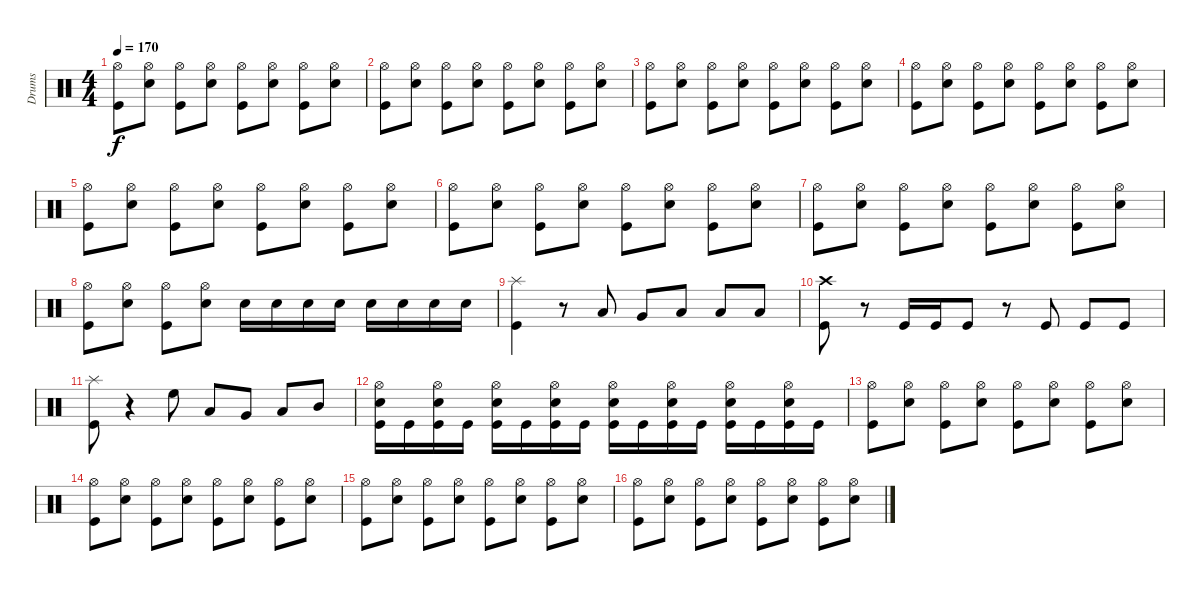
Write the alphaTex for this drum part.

\track ("Drums" "Drums") {instrument percussion}
\staff {score}
\articulation defaults
\ts (4 4)
\tempo 170
\clef neutral
\ks c
("Hi-Hat (open)" "Kick (hit)").8{dy f} ("Hi-Hat (open)" "Snare (hit) 2").8 ("Hi-Hat (open)" "Kick (hit)").8 ("Hi-Hat (open)" "Snare (hit) 2").8 ("Hi-Hat (open)" "Kick (hit)").8 ("Hi-Hat (open)" "Snare (hit) 2").8 ("Hi-Hat (open)" "Kick (hit)").8 ("Hi-Hat (open)" "Snare (hit) 2").8 |
("Hi-Hat (open)" "Kick (hit)").8 ("Hi-Hat (open)" "Snare (hit) 2").8 ("Hi-Hat (open)" "Kick (hit)").8 ("Hi-Hat (open)" "Snare (hit) 2").8 ("Hi-Hat (open)" "Kick (hit)").8 ("Hi-Hat (open)" "Snare (hit) 2").8 ("Hi-Hat (open)" "Kick (hit)").8 ("Hi-Hat (open)" "Snare (hit) 2").8 |
("Hi-Hat (open)" "Kick (hit)").8 ("Hi-Hat (open)" "Snare (hit) 2").8 ("Hi-Hat (open)" "Kick (hit)").8 ("Hi-Hat (open)" "Snare (hit) 2").8 ("Hi-Hat (open)" "Kick (hit)").8 ("Hi-Hat (open)" "Snare (hit) 2").8 ("Hi-Hat (open)" "Kick (hit)").8 ("Hi-Hat (open)" "Snare (hit) 2").8 |
("Hi-Hat (open)" "Kick (hit)").8 ("Hi-Hat (open)" "Snare (hit) 2").8 ("Hi-Hat (open)" "Kick (hit)").8 ("Hi-Hat (open)" "Snare (hit) 2").8 ("Hi-Hat (open)" "Kick (hit)").8 ("Hi-Hat (open)" "Snare (hit) 2").8 ("Hi-Hat (open)" "Kick (hit)").8 ("Hi-Hat (open)" "Snare (hit) 2").8 |
("Hi-Hat (open)" "Kick (hit)").8 ("Hi-Hat (open)" "Snare (hit) 2").8 ("Hi-Hat (open)" "Kick (hit)").8 ("Hi-Hat (open)" "Snare (hit) 2").8 ("Hi-Hat (open)" "Kick (hit)").8 ("Hi-Hat (open)" "Snare (hit) 2").8 ("Hi-Hat (open)" "Kick (hit)").8 ("Hi-Hat (open)" "Snare (hit) 2").8 |
("Hi-Hat (open)" "Kick (hit)").8 ("Hi-Hat (open)" "Snare (hit) 2").8 ("Hi-Hat (open)" "Kick (hit)").8 ("Hi-Hat (open)" "Snare (hit) 2").8 ("Hi-Hat (open)" "Kick (hit)").8 ("Hi-Hat (open)" "Snare (hit) 2").8 ("Hi-Hat (open)" "Kick (hit)").8 ("Hi-Hat (open)" "Snare (hit) 2").8 |
("Hi-Hat (open)" "Kick (hit)").8 ("Hi-Hat (open)" "Snare (hit) 2").8 ("Hi-Hat (open)" "Kick (hit)").8 ("Hi-Hat (open)" "Snare (hit) 2").8 ("Hi-Hat (open)" "Kick (hit)").8 ("Hi-Hat (open)" "Snare (hit) 2").8 ("Hi-Hat (open)" "Kick (hit)").8 ("Hi-Hat (open)" "Snare (hit) 2").8 |
("Hi-Hat (open)" "Kick (hit)").8 ("Hi-Hat (open)" "Snare (hit) 2").8 ("Hi-Hat (open)" "Kick (hit)").8 ("Hi-Hat (open)" "Snare (hit) 2").8 "Snare (hit) 2".16 "Snare (hit) 2".16 "Snare (hit) 2".16 "Snare (hit) 2".16 "Snare (hit) 2".16 "Snare (hit) 2".16 "Snare (hit) 2".16 "Snare (hit) 2".16 |
("Splash (hit)" "Kick (hit)").4 r.8 "Low Tom (hit)".8 "Very Low Tom (hit)".8 "Low Floor Tom (hit)".8 "Low Floor Tom (hit)".8 "Low Floor Tom (hit)".8 |
("Crash high (hit)" "Kick (hit)").8 r.8 "Kick (hit)".16 "Kick (hit)".16 "Kick (hit)".8 r.8 "Kick (hit)".8 "Kick (hit)".8 "Kick (hit)".8 |
("Splash (hit)" "Kick (hit)").8 r.4 "High Floor Tom (hit)".8 "Low Tom (hit)".8 "Very Low Tom (hit)".8 "Low Floor Tom (hit)".8 "Mid Tom (hit)".8 |
("Hi-Hat (open)" "Snare (hit) 2" "Kick (hit)").16 "Kick (hit)".16 ("Hi-Hat (open)" "Snare (hit) 2" "Kick (hit)").16 "Kick (hit)".16 ("Hi-Hat (open)" "Snare (hit) 2" "Kick (hit)").16 "Kick (hit)".16 ("Hi-Hat (open)" "Snare (hit) 2" "Kick (hit)").16 "Kick (hit)".16 ("Hi-Hat (open)" "Snare (hit) 2" "Kick (hit)").16 "Kick (hit)".16 ("Hi-Hat (open)" "Snare (hit) 2" "Kick (hit)").16 "Kick (hit)".16 ("Hi-Hat (open)" "Snare (hit) 2" "Kick (hit)").16 "Kick (hit)".16 ("Hi-Hat (open)" "Snare (hit) 2" "Kick (hit)").16 "Kick (hit)".16 |
("Hi-Hat (open)" "Kick (hit)").8 ("Hi-Hat (open)" "Snare (hit) 2").8 ("Hi-Hat (open)" "Kick (hit)").8 ("Hi-Hat (open)" "Snare (hit) 2").8 ("Hi-Hat (open)" "Kick (hit)").8 ("Hi-Hat (open)" "Snare (hit) 2").8 ("Hi-Hat (open)" "Kick (hit)").8 ("Hi-Hat (open)" "Snare (hit) 2").8 |
("Hi-Hat (open)" "Kick (hit)").8 ("Hi-Hat (open)" "Snare (hit) 2").8 ("Hi-Hat (open)" "Kick (hit)").8 ("Hi-Hat (open)" "Snare (hit) 2").8 ("Hi-Hat (open)" "Kick (hit)").8 ("Hi-Hat (open)" "Snare (hit) 2").8 ("Hi-Hat (open)" "Kick (hit)").8 ("Hi-Hat (open)" "Snare (hit) 2").8 |
("Hi-Hat (open)" "Kick (hit)").8 ("Hi-Hat (open)" "Snare (hit) 2").8 ("Hi-Hat (open)" "Kick (hit)").8 ("Hi-Hat (open)" "Snare (hit) 2").8 ("Hi-Hat (open)" "Kick (hit)").8 ("Hi-Hat (open)" "Snare (hit) 2").8 ("Hi-Hat (open)" "Kick (hit)").8 ("Hi-Hat (open)" "Snare (hit) 2").8 |
("Hi-Hat (open)" "Kick (hit)").8 ("Hi-Hat (open)" "Snare (hit) 2").8 ("Hi-Hat (open)" "Kick (hit)").8 ("Hi-Hat (open)" "Snare (hit) 2").8 ("Hi-Hat (open)" "Kick (hit)").8 ("Hi-Hat (open)" "Snare (hit) 2").8 ("Hi-Hat (open)" "Kick (hit)").8 ("Hi-Hat (open)" "Snare (hit) 2").8
